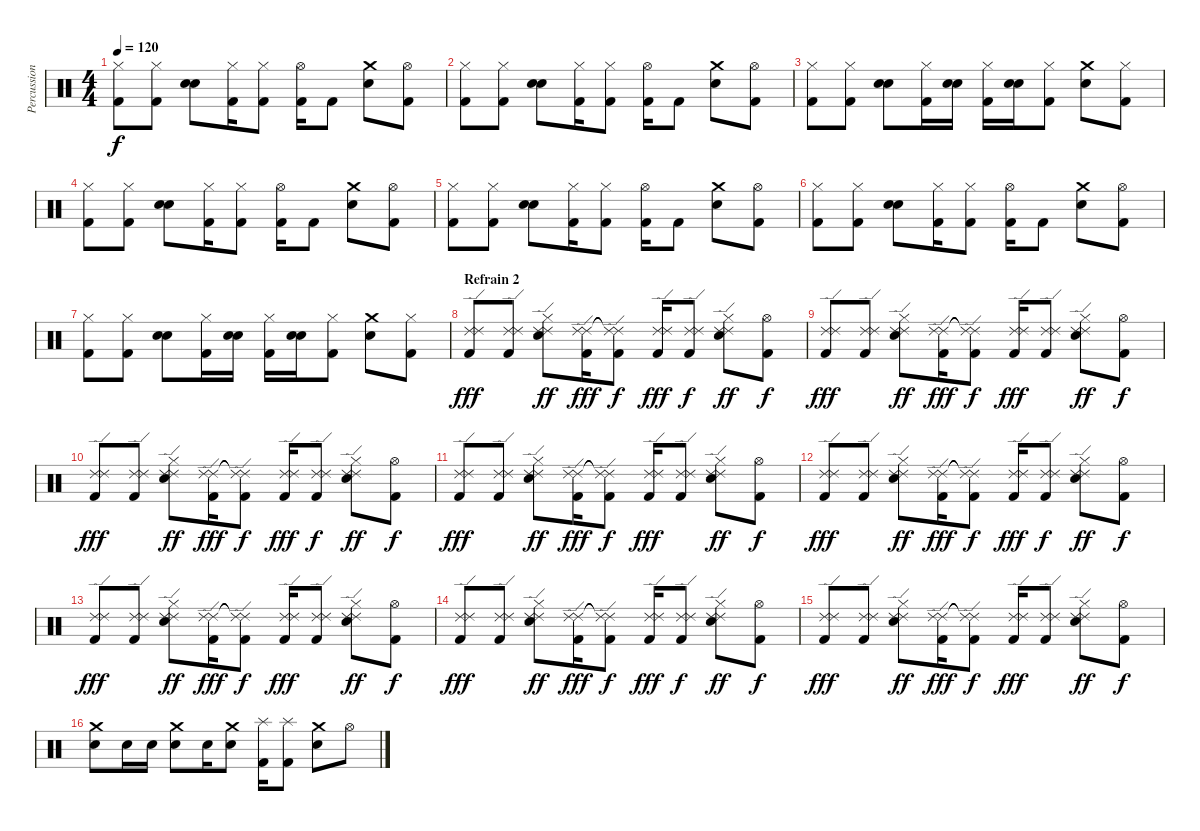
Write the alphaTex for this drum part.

\track ("Percussions" "Percussion") {instrument percussion}
\staff {score}
\articulation defaults
\ts (4 4)
\tempo 120
\clef neutral
\ks c
("Hi-Hat (closed)" "Kick (hit) 2").8{dy f} ("Hi-Hat (closed)" "Kick (hit) 2").8 ("Snare (hit) 2" "Snare (hit) 2").8 ("Hi-Hat (closed)" "Kick (hit) 2").16 ("Hi-Hat (closed)" "Kick (hit) 2").8 ("Hi-Hat (open)" "Kick (hit) 2").16 "Kick (hit) 2".8 ("Crash medium (hit)" "Snare (hit) 2").8 ("Hi-Hat (open)" "Kick (hit) 2").8 |
("Hi-Hat (closed)" "Kick (hit) 2").8 ("Hi-Hat (closed)" "Kick (hit) 2").8 ("Snare (hit) 2" "Snare (hit) 2").8 ("Hi-Hat (closed)" "Kick (hit) 2").16 ("Hi-Hat (closed)" "Kick (hit) 2").8 ("Hi-Hat (open)" "Kick (hit) 2").16 "Kick (hit) 2".8 ("Crash medium (hit)" "Snare (hit) 2").8 ("Hi-Hat (open)" "Kick (hit) 2").8 |
("Hi-Hat (closed)" "Kick (hit) 2").8 ("Hi-Hat (closed)" "Kick (hit) 2").8 ("Snare (hit) 2" "Snare (hit) 2").8 ("Hi-Hat (closed)" "Kick (hit) 2").16 ("Snare (hit) 2" "Snare (hit) 2").16 ("Hi-Hat (closed)" "Kick (hit) 2").16 ("Snare (hit) 2" "Snare (hit) 2").16 ("Hi-Hat (closed)" "Kick (hit) 2").8 ("Crash medium (hit)" "Snare (hit) 2").8 ("Hi-Hat (closed)" "Kick (hit) 2").8 |
("Hi-Hat (closed)" "Kick (hit) 2").8 ("Hi-Hat (closed)" "Kick (hit) 2").8 ("Snare (hit) 2" "Snare (hit) 2").8 ("Hi-Hat (closed)" "Kick (hit) 2").16 ("Hi-Hat (closed)" "Kick (hit) 2").8 ("Hi-Hat (open)" "Kick (hit) 2").16 "Kick (hit) 2".8 ("Crash medium (hit)" "Snare (hit) 2").8 ("Hi-Hat (open)" "Kick (hit) 2").8 |
("Hi-Hat (closed)" "Kick (hit) 2").8 ("Hi-Hat (closed)" "Kick (hit) 2").8 ("Snare (hit) 2" "Snare (hit) 2").8 ("Hi-Hat (closed)" "Kick (hit) 2").16 ("Hi-Hat (closed)" "Kick (hit) 2").8 ("Hi-Hat (open)" "Kick (hit) 2").16 "Kick (hit) 2".8 ("Crash medium (hit)" "Snare (hit) 2").8 ("Hi-Hat (open)" "Kick (hit) 2").8 |
("Hi-Hat (closed)" "Kick (hit) 2").8 ("Hi-Hat (closed)" "Kick (hit) 2").8 ("Snare (hit) 2" "Snare (hit) 2").8 ("Hi-Hat (closed)" "Kick (hit) 2").16 ("Hi-Hat (closed)" "Kick (hit) 2").8 ("Hi-Hat (open)" "Kick (hit) 2").16 "Kick (hit) 2".8 ("Crash medium (hit)" "Snare (hit) 2").8 ("Hi-Hat (open)" "Kick (hit) 2").8 |
("Hi-Hat (closed)" "Kick (hit) 2").8 ("Hi-Hat (closed)" "Kick (hit) 2").8 ("Snare (hit) 2" "Snare (hit) 2").8 ("Hi-Hat (closed)" "Kick (hit) 2").16 ("Snare (hit) 2" "Snare (hit) 2").16 ("Hi-Hat (closed)" "Kick (hit) 2").16 ("Snare (hit) 2" "Snare (hit) 2").16 ("Hi-Hat (closed)" "Kick (hit) 2").8 ("Crash medium (hit)" "Snare (hit) 2").8 ("Hi-Hat (closed)" "Kick (hit) 2").8 |
\section ("" "Refrain 2")
("Ride (edge) 2" "Ride (edge) 2" "Kick (hit) 2").8{dy fff} ("Ride (edge) 2" "Ride (edge) 2" "Kick (hit) 2").8 ("Hi-Hat (closed)" "Ride (edge) 2" "Ride (edge) 2" "Snare (hit) 2").8{dy ff} ("Ride (edge) 2" "Ride (edge) 2" "Kick (hit) 2").16{dy fff} ("Ride (edge) 2"{t} "Ride (edge) 2"{t} "Kick (hit) 2").8{dy f} ("Ride (edge) 2" "Ride (edge) 2" "Kick (hit) 2").16{dy fff} ("Ride (edge) 2" "Ride (edge) 2" "Kick (hit) 2").8{dy f} ("Hi-Hat (closed)" "Ride (edge) 2" "Ride (edge) 2" "Snare (hit) 2").8{dy ff} ("Hi-Hat (open)" "Kick (hit) 2").8{dy f} |
("Ride (edge) 2" "Ride (edge) 2" "Kick (hit) 2").8{dy fff} ("Ride (edge) 2" "Ride (edge) 2" "Kick (hit) 2").8 ("Hi-Hat (closed)" "Ride (edge) 2" "Ride (edge) 2" "Snare (hit) 2").8{dy ff} ("Ride (edge) 2" "Ride (edge) 2" "Kick (hit) 2").16{dy fff} ("Ride (edge) 2"{t} "Ride (edge) 2"{t} "Kick (hit) 2").8{dy f} ("Ride (edge) 2" "Ride (edge) 2" "Kick (hit) 2").16{dy fff} ("Ride (edge) 2" "Ride (edge) 2" "Kick (hit) 2").8 ("Hi-Hat (closed)" "Ride (edge) 2" "Ride (edge) 2" "Snare (hit) 2").8{dy ff} ("Hi-Hat (open)" "Kick (hit) 2").8{dy f} |
("Ride (edge) 2" "Ride (edge) 2" "Kick (hit) 2").8{dy fff} ("Ride (edge) 2" "Ride (edge) 2" "Kick (hit) 2").8 ("Hi-Hat (closed)" "Ride (edge) 2" "Ride (edge) 2" "Snare (hit) 2").8{dy ff} ("Ride (edge) 2" "Ride (edge) 2" "Kick (hit) 2").16{dy fff} ("Ride (edge) 2"{t} "Ride (edge) 2"{t} "Kick (hit) 2").8{dy f} ("Ride (edge) 2" "Ride (edge) 2" "Kick (hit) 2").16{dy fff} ("Ride (edge) 2" "Ride (edge) 2" "Kick (hit) 2").8{dy f} ("Hi-Hat (closed)" "Ride (edge) 2" "Ride (edge) 2" "Snare (hit) 2").8{dy ff} ("Hi-Hat (open)" "Kick (hit) 2").8{dy f} |
("Ride (edge) 2" "Ride (edge) 2" "Kick (hit) 2").8{dy fff} ("Ride (edge) 2" "Ride (edge) 2" "Kick (hit) 2").8 ("Hi-Hat (closed)" "Ride (edge) 2" "Ride (edge) 2" "Snare (hit) 2").8{dy ff} ("Ride (edge) 2" "Ride (edge) 2" "Kick (hit) 2").16{dy fff} ("Ride (edge) 2"{t} "Ride (edge) 2"{t} "Kick (hit) 2").8{dy f} ("Ride (edge) 2" "Ride (edge) 2" "Kick (hit) 2").16{dy fff} ("Ride (edge) 2" "Ride (edge) 2" "Kick (hit) 2").8 ("Hi-Hat (closed)" "Ride (edge) 2" "Ride (edge) 2" "Snare (hit) 2").8{dy ff} ("Hi-Hat (open)" "Kick (hit) 2").8{dy f} |
("Ride (edge) 2" "Ride (edge) 2" "Kick (hit) 2").8{dy fff} ("Ride (edge) 2" "Ride (edge) 2" "Kick (hit) 2").8 ("Hi-Hat (closed)" "Ride (edge) 2" "Ride (edge) 2" "Snare (hit) 2").8{dy ff} ("Ride (edge) 2" "Ride (edge) 2" "Kick (hit) 2").16{dy fff} ("Ride (edge) 2"{t} "Ride (edge) 2"{t} "Kick (hit) 2").8{dy f} ("Ride (edge) 2" "Ride (edge) 2" "Kick (hit) 2").16{dy fff} ("Ride (edge) 2" "Ride (edge) 2" "Kick (hit) 2").8{dy f} ("Hi-Hat (closed)" "Ride (edge) 2" "Ride (edge) 2" "Snare (hit) 2").8{dy ff} ("Hi-Hat (open)" "Kick (hit) 2").8{dy f} |
("Ride (edge) 2" "Ride (edge) 2" "Kick (hit) 2").8{dy fff} ("Ride (edge) 2" "Ride (edge) 2" "Kick (hit) 2").8 ("Hi-Hat (closed)" "Ride (edge) 2" "Ride (edge) 2" "Snare (hit) 2").8{dy ff} ("Ride (edge) 2" "Ride (edge) 2" "Kick (hit) 2").16{dy fff} ("Ride (edge) 2"{t} "Ride (edge) 2"{t} "Kick (hit) 2").8{dy f} ("Ride (edge) 2" "Ride (edge) 2" "Kick (hit) 2").16{dy fff} ("Ride (edge) 2" "Ride (edge) 2" "Kick (hit) 2").8 ("Hi-Hat (closed)" "Ride (edge) 2" "Ride (edge) 2" "Snare (hit) 2").8{dy ff} ("Hi-Hat (open)" "Kick (hit) 2").8{dy f} |
("Ride (edge) 2" "Ride (edge) 2" "Kick (hit) 2").8{dy fff} ("Ride (edge) 2" "Ride (edge) 2" "Kick (hit) 2").8 ("Hi-Hat (closed)" "Ride (edge) 2" "Ride (edge) 2" "Snare (hit) 2").8{dy ff} ("Ride (edge) 2" "Ride (edge) 2" "Kick (hit) 2").16{dy fff} ("Ride (edge) 2"{t} "Ride (edge) 2"{t} "Kick (hit) 2").8{dy f} ("Ride (edge) 2" "Ride (edge) 2" "Kick (hit) 2").16{dy fff} ("Ride (edge) 2" "Ride (edge) 2" "Kick (hit) 2").8{dy f} ("Hi-Hat (closed)" "Ride (edge) 2" "Ride (edge) 2" "Snare (hit) 2").8{dy ff} ("Hi-Hat (open)" "Kick (hit) 2").8{dy f} |
("Ride (edge) 2" "Ride (edge) 2" "Kick (hit) 2").8{dy fff} ("Ride (edge) 2" "Ride (edge) 2" "Kick (hit) 2").8 ("Hi-Hat (closed)" "Ride (edge) 2" "Ride (edge) 2" "Snare (hit) 2").8{dy ff} ("Ride (edge) 2" "Ride (edge) 2" "Kick (hit) 2").16{dy fff} ("Ride (edge) 2"{t} "Ride (edge) 2"{t} "Kick (hit) 2").8{dy f} ("Ride (edge) 2" "Ride (edge) 2" "Kick (hit) 2").16{dy fff} ("Ride (edge) 2" "Ride (edge) 2" "Kick (hit) 2").8 ("Hi-Hat (closed)" "Ride (edge) 2" "Ride (edge) 2" "Snare (hit) 2").8{dy ff} ("Hi-Hat (open)" "Kick (hit) 2").8{dy f} |
("Crash medium (hit)" "Snare (hit) 2").8 "Snare (hit) 2".16 "Snare (hit) 2".16 ("Crash medium (hit)" "Snare (hit) 2").8 "Snare (hit) 2".16 ("Crash medium (hit)" "Snare (hit) 2").8 ("Splash (hit)" "Kick (hit) 2").16 ("Splash (hit)" "Kick (hit) 2").8 ("Crash medium (hit)" "Snare (hit) 2").8 "Hi-Hat (open)".8
